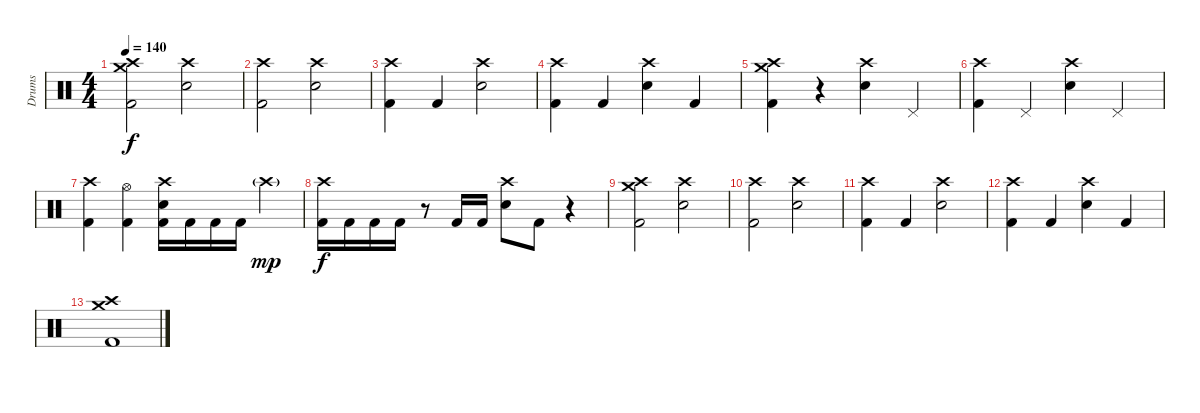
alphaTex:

\track ("Drums" "Drums") {instrument percussion}
\staff {score}
\articulation defaults
\ts (4 4)
\tempo 140
\clef neutral
\ks c
("Crash medium (hit)" "Crash high (hit)" "Kick (hit) 2").2{dy f} ("Crash high (hit)" "Electric Snare (hit)").2 |
("Crash high (hit)" "Kick (hit) 2").2 ("Crash high (hit)" "Electric Snare (hit)").2 |
("Crash high (hit)" "Kick (hit) 2").4 "Kick (hit) 2".4 ("Crash high (hit)" "Electric Snare (hit)").2 |
("Crash high (hit)" "Kick (hit) 2").4 "Kick (hit) 2".4 ("Crash high (hit)" "Electric Snare (hit)").4 "Kick (hit) 2".4 |
("Crash medium (hit)" "Crash high (hit)" "Kick (hit) 2").4 r.4 ("Crash high (hit)" "Electric Snare (hit)").4 "Pedal Hi-Hat (hit)".4 |
("Crash high (hit)" "Kick (hit) 2").4 "Pedal Hi-Hat (hit)".4 ("Crash high (hit)" "Electric Snare (hit)").4 "Pedal Hi-Hat (hit)".4 |
("Crash high (hit)" "Kick (hit) 2").4 ("Hi-Hat (open)" "Kick (hit) 2").4 ("Crash high (hit)" "Electric Snare (hit)" "Kick (hit) 2").16 "Kick (hit) 2".16 "Kick (hit) 2".16 "Kick (hit) 2".16 "Crash high (hit)"{g}.4{dy mp} |
("Crash high (hit)" "Kick (hit) 2").16{dy f} "Kick (hit) 2".16 "Kick (hit) 2".16 "Kick (hit) 2".16 r.8 "Kick (hit) 2".16 "Kick (hit) 2".16 ("Crash high (hit)" "Electric Snare (hit)").8 "Kick (hit) 2".8 r.4 |
("Crash medium (hit)" "Crash high (hit)" "Kick (hit) 2").2 ("Crash high (hit)" "Electric Snare (hit)").2 |
("Crash high (hit)" "Kick (hit) 2").2 ("Crash high (hit)" "Electric Snare (hit)").2 |
("Crash high (hit)" "Kick (hit) 2").4 "Kick (hit) 2".4 ("Crash high (hit)" "Electric Snare (hit)").2 |
("Crash high (hit)" "Kick (hit) 2").4 "Kick (hit) 2".4 ("Crash high (hit)" "Electric Snare (hit)").4 "Kick (hit) 2".4 |
("Crash medium (hit)" "Crash high (hit)" "Kick (hit) 2").1
